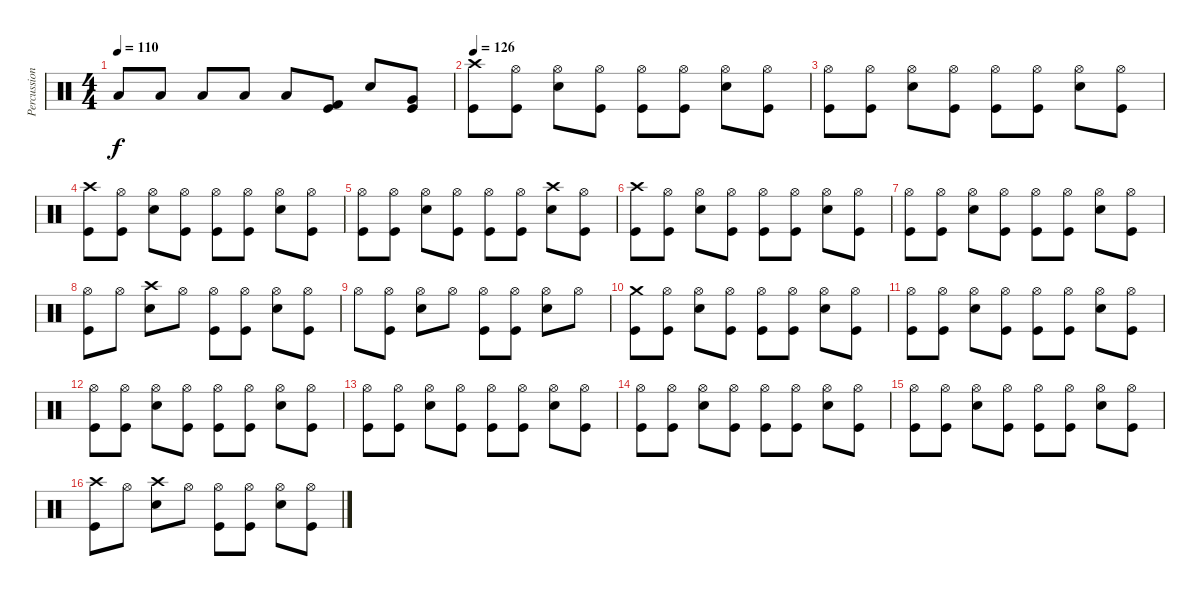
\track ("Percussion" "Percussion") {instrument percussion}
\staff {score}
\articulation defaults
\ts (4 4)
\tempo 110
\clef neutral
\ks c "Low Floor Tom (hit)".8{dy f} "Low Floor Tom (hit)".8 "Low Floor Tom (hit)".8 "Low Floor Tom (hit)".8 "Low Floor Tom (hit)".8
("Kick (hit) 2" "Kick (hit)").8 "Electric Snare (hit)".8 ("Very Low Tom (hit)" "Kick (hit)").8 |
\tempo 126
("Crash high (hit)" "Kick (hit)").8 ("Kick (hit)" "Hi-Hat (open)").8 ("Electric Snare (hit)" "Hi-Hat (open)").8 ("Kick (hit)" "Hi-Hat (open)").8 ("Kick (hit)" "Hi-Hat (open)").8 ("Kick (hit)" "Hi-Hat (open)").8 ("Electric Snare (hit)" "Hi-Hat (open)").8 ("Kick (hit)" "Hi-Hat (open)").8 |
("Kick (hit)" "Hi-Hat (open)").8 ("Kick (hit)" "Hi-Hat (open)").8 ("Electric Snare (hit)" "Hi-Hat (open)").8 ("Kick (hit)" "Hi-Hat (open)").8 ("Kick (hit)" "Hi-Hat (open)").8 ("Kick (hit)" "Hi-Hat (open)").8 ("Electric Snare (hit)" "Hi-Hat (open)").8 ("Kick (hit)" "Hi-Hat (open)").8 |
("Crash high (hit)" "Kick (hit)").8 ("Kick (hit)" "Hi-Hat (open)").8 ("Electric Snare (hit)" "Hi-Hat (open)").8 ("Kick (hit)" "Hi-Hat (open)").8 ("Kick (hit)" "Hi-Hat (open)").8 ("Kick (hit)" "Hi-Hat (open)").8 ("Electric Snare (hit)" "Hi-Hat (open)").8 ("Kick (hit)" "Hi-Hat (open)").8 |
("Kick (hit)" "Hi-Hat (open)").8 ("Kick (hit)" "Hi-Hat (open)").8 ("Electric Snare (hit)" "Hi-Hat (open)").8 ("Kick (hit)" "Hi-Hat (open)").8 ("Kick (hit)" "Hi-Hat (open)").8 ("Kick (hit)" "Hi-Hat (open)").8 ("Crash high (hit)" "Electric Snare (hit)").8 ("Kick (hit)" "Hi-Hat (open)").8 |
("Crash high (hit)" "Kick (hit)").8 ("Kick (hit)" "Hi-Hat (open)").8 ("Electric Snare (hit)" "Hi-Hat (open)").8 ("Kick (hit)" "Hi-Hat (open)").8 ("Kick (hit)" "Hi-Hat (open)").8 ("Kick (hit)" "Hi-Hat (open)").8 ("Electric Snare (hit)" "Hi-Hat (open)").8 ("Kick (hit)" "Hi-Hat (open)").8 |
("Kick (hit)" "Hi-Hat (open)").8 ("Kick (hit)" "Hi-Hat (open)").8 ("Electric Snare (hit)" "Hi-Hat (open)").8 ("Kick (hit)" "Hi-Hat (open)").8 ("Kick (hit)" "Hi-Hat (open)").8 ("Kick (hit)" "Hi-Hat (open)").8 ("Electric Snare (hit)" "Hi-Hat (open)").8 ("Hi-Hat (open)" "Kick (hit)").8 |
("Hi-Hat (open)" "Kick (hit)").8 "Hi-Hat (open)".8 ("Crash high (hit)" "Electric Snare (hit)").8 "Hi-Hat (open)".8 ("Hi-Hat (open)" "Kick (hit)").8 ("Hi-Hat (open)" "Kick (hit)").8 ("Hi-Hat (open)" "Electric Snare (hit)").8 ("Hi-Hat (open)" "Kick (hit)").8 |
"Hi-Hat (open)".8 ("Hi-Hat (open)" "Kick (hit)").8 ("Hi-Hat (open)" "Electric Snare (hit)").8 "Hi-Hat (open)".8 ("Hi-Hat (open)" "Kick (hit)").8 ("Hi-Hat (open)" "Kick (hit)").8 ("Hi-Hat (open)" "Electric Snare (hit)").8 "Hi-Hat (open)".8 |
("Kick (hit)" "Crash medium (hit)").8 ("Kick (hit)" "Hi-Hat (open)").8 ("Electric Snare (hit)" "Hi-Hat (open)").8 ("Kick (hit)" "Hi-Hat (open)").8 ("Kick (hit)" "Hi-Hat (open)").8 ("Kick (hit)" "Hi-Hat (open)").8 ("Electric Snare (hit)" "Hi-Hat (open)").8 ("Kick (hit)" "Hi-Hat (open)").8 |
("Kick (hit)" "Hi-Hat (open)").8 ("Kick (hit)" "Hi-Hat (open)").8 ("Electric Snare (hit)" "Hi-Hat (open)").8 ("Kick (hit)" "Hi-Hat (open)").8 ("Kick (hit)" "Hi-Hat (open)").8 ("Kick (hit)" "Hi-Hat (open)").8 ("Electric Snare (hit)" "Hi-Hat (open)").8 ("Kick (hit)" "Hi-Hat (open)").8 |
("Kick (hit)" "Hi-Hat (open)").8 ("Kick (hit)" "Hi-Hat (open)").8 ("Electric Snare (hit)" "Hi-Hat (open)").8 ("Kick (hit)" "Hi-Hat (open)").8 ("Kick (hit)" "Hi-Hat (open)").8 ("Kick (hit)" "Hi-Hat (open)").8 ("Electric Snare (hit)" "Hi-Hat (open)").8 ("Kick (hit)" "Hi-Hat (open)").8 |
("Kick (hit)" "Hi-Hat (open)").8 ("Kick (hit)" "Hi-Hat (open)").8 ("Electric Snare (hit)" "Hi-Hat (open)").8 ("Kick (hit)" "Hi-Hat (open)").8 ("Kick (hit)" "Hi-Hat (open)").8 ("Kick (hit)" "Hi-Hat (open)").8 ("Electric Snare (hit)" "Hi-Hat (open)").8 ("Kick (hit)" "Hi-Hat (open)").8 |
("Kick (hit)" "Hi-Hat (open)").8 ("Kick (hit)" "Hi-Hat (open)").8 ("Electric Snare (hit)" "Hi-Hat (open)").8 ("Kick (hit)" "Hi-Hat (open)").8 ("Kick (hit)" "Hi-Hat (open)").8 ("Kick (hit)" "Hi-Hat (open)").8 ("Electric Snare (hit)" "Hi-Hat (open)").8 ("Kick (hit)" "Hi-Hat (open)").8 |
("Kick (hit)" "Hi-Hat (open)").8 ("Kick (hit)" "Hi-Hat (open)").8 ("Electric Snare (hit)" "Hi-Hat (open)").8 ("Kick (hit)" "Hi-Hat (open)").8 ("Kick (hit)" "Hi-Hat (open)").8 ("Kick (hit)" "Hi-Hat (open)").8 ("Electric Snare (hit)" "Hi-Hat (open)").8 ("Kick (hit)" "Hi-Hat (open)").8 |
("Kick (hit)" "Crash high (hit)").8 "Hi-Hat (open)".8 ("Crash high (hit)" "Electric Snare (hit)").8 "Hi-Hat (open)".8 ("Hi-Hat (open)" "Kick (hit)").8 ("Hi-Hat (open)" "Kick (hit)").8 ("Hi-Hat (open)" "Electric Snare (hit)").8 ("Hi-Hat (open)" "Kick (hit)").8
